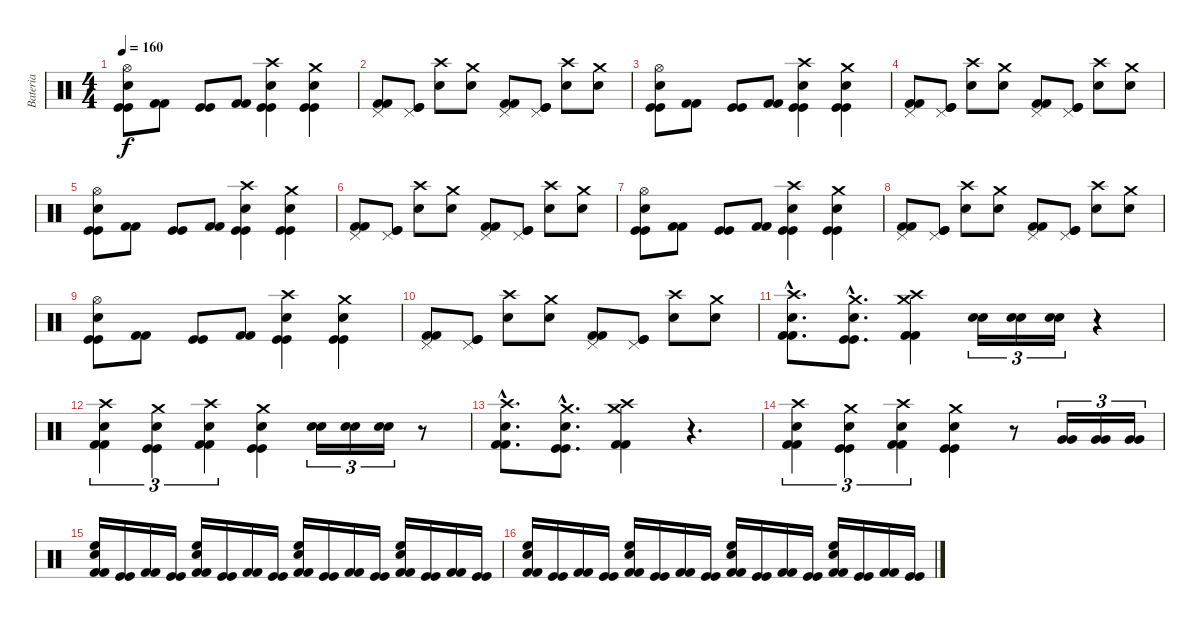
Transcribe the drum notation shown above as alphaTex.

\track ("Bateria" "Bateria") {instrument percussion}
\staff {score}
\articulation defaults
\ts (4 4)
\tempo 160
\clef neutral
\ks c
("Kick (hit)" "Kick (hit)" "Snare (hit) 2" "Hi-Hat (open)").8{dy f} ("Kick (hit) 2" "Kick (hit) 2").8 ("Kick (hit)" "Kick (hit)").8 ("Kick (hit) 2" "Kick (hit) 2").8 ("Kick (hit)" "Kick (hit)" "Snare (hit) 2" "Crash high (hit)").4 ("Kick (hit)" "Kick (hit)" "Snare (hit) 2" "Crash medium (hit)").4 |
("Kick (hit) 2" "Kick (hit) 2" "Pedal Hi-Hat (hit)").8 ("Kick (hit)" "Kick (hit)" "Pedal Hi-Hat (hit)").8 ("Snare (hit) 2" "Crash high (hit)").8 ("Snare (hit) 2" "Crash medium (hit)").8 ("Kick (hit) 2" "Kick (hit) 2" "Pedal Hi-Hat (hit)").8 ("Kick (hit)" "Kick (hit)" "Pedal Hi-Hat (hit)").8 ("Snare (hit) 2" "Crash high (hit)").8 ("Snare (hit) 2" "Crash medium (hit)").8 |
("Kick (hit)" "Kick (hit)" "Snare (hit) 2" "Hi-Hat (open)").8 ("Kick (hit) 2" "Kick (hit) 2").8 ("Kick (hit)" "Kick (hit)").8 ("Kick (hit) 2" "Kick (hit) 2").8 ("Kick (hit)" "Kick (hit)" "Snare (hit) 2" "Crash high (hit)").4 ("Kick (hit)" "Kick (hit)" "Snare (hit) 2" "Crash medium (hit)").4 |
("Kick (hit) 2" "Kick (hit) 2" "Pedal Hi-Hat (hit)").8 ("Kick (hit)" "Kick (hit)" "Pedal Hi-Hat (hit)").8 ("Snare (hit) 2" "Crash high (hit)").8 ("Snare (hit) 2" "Crash medium (hit)").8 ("Kick (hit) 2" "Kick (hit) 2" "Pedal Hi-Hat (hit)").8 ("Kick (hit)" "Kick (hit)" "Pedal Hi-Hat (hit)").8 ("Snare (hit) 2" "Crash high (hit)").8 ("Snare (hit) 2" "Crash medium (hit)").8 |
("Kick (hit)" "Kick (hit)" "Snare (hit) 2" "Hi-Hat (open)").8 ("Kick (hit) 2" "Kick (hit) 2").8 ("Kick (hit)" "Kick (hit)").8 ("Kick (hit) 2" "Kick (hit) 2").8 ("Kick (hit)" "Kick (hit)" "Snare (hit) 2" "Crash high (hit)").4 ("Kick (hit)" "Kick (hit)" "Snare (hit) 2" "Crash medium (hit)").4 |
("Kick (hit) 2" "Kick (hit) 2" "Pedal Hi-Hat (hit)").8 ("Kick (hit)" "Kick (hit)" "Pedal Hi-Hat (hit)").8 ("Snare (hit) 2" "Crash high (hit)").8 ("Snare (hit) 2" "Crash medium (hit)").8 ("Kick (hit) 2" "Kick (hit) 2" "Pedal Hi-Hat (hit)").8 ("Kick (hit)" "Kick (hit)" "Pedal Hi-Hat (hit)").8 ("Snare (hit) 2" "Crash high (hit)").8 ("Snare (hit) 2" "Crash medium (hit)").8 |
("Kick (hit)" "Kick (hit)" "Snare (hit) 2" "Hi-Hat (open)").8 ("Kick (hit) 2" "Kick (hit) 2").8 ("Kick (hit)" "Kick (hit)").8 ("Kick (hit) 2" "Kick (hit) 2").8 ("Kick (hit)" "Kick (hit)" "Snare (hit) 2" "Crash high (hit)").4 ("Kick (hit)" "Kick (hit)" "Snare (hit) 2" "Crash medium (hit)").4 |
("Kick (hit) 2" "Kick (hit) 2" "Pedal Hi-Hat (hit)").8 ("Kick (hit)" "Kick (hit)" "Pedal Hi-Hat (hit)").8 ("Snare (hit) 2" "Crash high (hit)").8 ("Snare (hit) 2" "Crash medium (hit)").8 ("Kick (hit) 2" "Kick (hit) 2" "Pedal Hi-Hat (hit)").8 ("Kick (hit)" "Kick (hit)" "Pedal Hi-Hat (hit)").8 ("Snare (hit) 2" "Crash high (hit)").8 ("Snare (hit) 2" "Crash medium (hit)").8 |
("Kick (hit)" "Kick (hit)" "Snare (hit) 2" "Hi-Hat (open)").8 ("Kick (hit) 2" "Kick (hit) 2").8 ("Kick (hit)" "Kick (hit)").8 ("Kick (hit) 2" "Kick (hit) 2").8 ("Kick (hit)" "Kick (hit)" "Snare (hit) 2" "Crash high (hit)").4 ("Kick (hit)" "Kick (hit)" "Snare (hit) 2" "Crash medium (hit)").4 |
("Kick (hit) 2" "Kick (hit) 2" "Pedal Hi-Hat (hit)").8 ("Kick (hit)" "Kick (hit)" "Pedal Hi-Hat (hit)").8 ("Snare (hit) 2" "Crash high (hit)").8 ("Snare (hit) 2" "Crash medium (hit)").8 ("Kick (hit) 2" "Kick (hit) 2" "Pedal Hi-Hat (hit)").8 ("Kick (hit)" "Kick (hit)" "Pedal Hi-Hat (hit)").8 ("Snare (hit) 2" "Crash high (hit)").8 ("Snare (hit) 2" "Crash medium (hit)").8 |
("Kick (hit) 2"{hac} "Kick (hit) 2"{hac} "Snare (hit) 2"{hac} "Crash high (hit)"{hac}).8{d} ("Kick (hit)"{hac} "Kick (hit)"{hac} "Snare (hit) 2"{hac} "Crash medium (hit)"{hac}).8{d} ("Kick (hit) 2" "Kick (hit) 2" "Crash medium (hit)" "Crash high (hit)").4 ("Snare (hit) 2" "Snare (hit) 2").16{tu (3 2)} ("Snare (hit) 2" "Snare (hit) 2").16{tu (3 2)} ("Snare (hit) 2" "Snare (hit) 2").16{tu (3 2)} r.4 |
("Kick (hit) 2" "Kick (hit) 2" "Snare (hit) 2" "Crash high (hit)").4{tu (3 2)} ("Kick (hit)" "Kick (hit)" "Snare (hit) 2" "Crash medium (hit)").4{tu (3 2)} ("Kick (hit) 2" "Kick (hit) 2" "Snare (hit) 2" "Crash high (hit)").4{tu (3 2)} ("Kick (hit)" "Kick (hit)" "Snare (hit) 2" "Crash medium (hit)").4 ("Snare (hit) 2" "Snare (hit) 2").16{tu (3 2)} ("Snare (hit) 2" "Snare (hit) 2").16{tu (3 2)} ("Snare (hit) 2" "Snare (hit) 2").16{tu (3 2)} r.8 |
("Kick (hit) 2"{hac} "Kick (hit) 2"{hac} "Snare (hit) 2"{hac} "Crash high (hit)"{hac}).8{d} ("Kick (hit)"{hac} "Kick (hit)"{hac} "Snare (hit) 2"{hac} "Crash medium (hit)"{hac}).8{d} ("Kick (hit) 2" "Kick (hit) 2" "Crash medium (hit)" "Crash high (hit)").4 r.4{d} |
("Kick (hit) 2" "Kick (hit) 2" "Snare (hit) 2" "Crash high (hit)").4{tu (3 2)} ("Kick (hit)" "Kick (hit)" "Snare (hit) 2" "Crash medium (hit)").4{tu (3 2)} ("Kick (hit) 2" "Kick (hit) 2" "Snare (hit) 2" "Crash high (hit)").4{tu (3 2)} ("Kick (hit)" "Kick (hit)" "Snare (hit) 2" "Crash medium (hit)").4 r.8 ("Very Low Tom (hit)" "Very Low Tom (hit)").16{tu (3 2)} ("Very Low Tom (hit)" "Very Low Tom (hit)").16{tu (3 2)} ("Very Low Tom (hit)" "Very Low Tom (hit)").16{tu (3 2)} |
("Kick (hit) 2" "Kick (hit) 2" "Snare (hit) 2" "High Floor Tom (hit)").16 ("Kick (hit)" "Kick (hit)").16 ("Kick (hit) 2" "Kick (hit) 2").16 ("Kick (hit)" "Kick (hit)").16 ("Kick (hit) 2" "Kick (hit) 2" "Snare (hit) 2" "High Floor Tom (hit)").16 ("Kick (hit)" "Kick (hit)").16 ("Kick (hit) 2" "Kick (hit) 2").16 ("Kick (hit)" "Kick (hit)").16 ("Kick (hit) 2" "Kick (hit) 2" "Snare (hit) 2" "High Floor Tom (hit)").16 ("Kick (hit)" "Kick (hit)").16 ("Kick (hit) 2" "Kick (hit) 2").16 ("Kick (hit)" "Kick (hit)").16 ("Kick (hit) 2" "Kick (hit) 2" "Snare (hit) 2" "High Floor Tom (hit)").16 ("Kick (hit)" "Kick (hit)").16 ("Kick (hit) 2" "Kick (hit) 2").16 ("Kick (hit)" "Kick (hit)").16 |
("Kick (hit) 2" "Kick (hit) 2" "Snare (hit) 2" "High Floor Tom (hit)").16 ("Kick (hit)" "Kick (hit)").16 ("Kick (hit) 2" "Kick (hit) 2").16 ("Kick (hit)" "Kick (hit)").16 ("Kick (hit) 2" "Kick (hit) 2" "Snare (hit) 2" "High Floor Tom (hit)").16 ("Kick (hit)" "Kick (hit)").16 ("Kick (hit) 2" "Kick (hit) 2").16 ("Kick (hit)" "Kick (hit)").16 ("Kick (hit) 2" "Kick (hit) 2" "Snare (hit) 2" "High Floor Tom (hit)").16 ("Kick (hit)" "Kick (hit)").16 ("Kick (hit) 2" "Kick (hit) 2").16 ("Kick (hit)" "Kick (hit)").16 ("Kick (hit) 2" "Kick (hit) 2" "Snare (hit) 2" "High Floor Tom (hit)").16 ("Kick (hit)" "Kick (hit)").16 ("Kick (hit) 2" "Kick (hit) 2").16 ("Kick (hit)" "Kick (hit)").16
